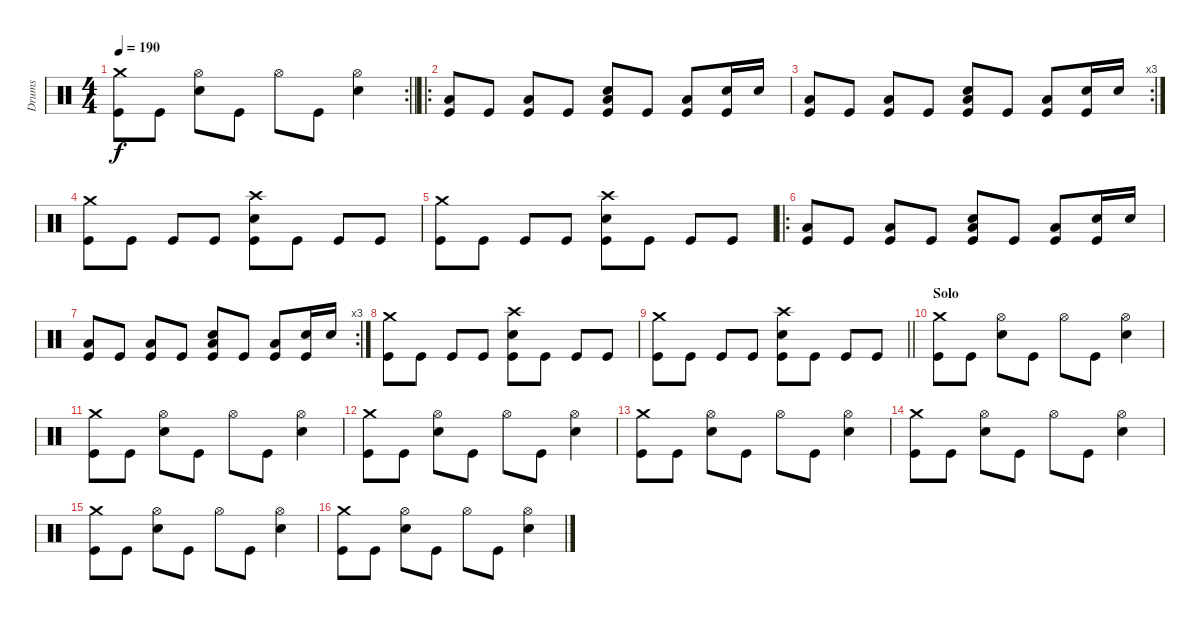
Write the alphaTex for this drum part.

\track ("Drums" "Drums") {instrument percussion}
\staff {score}
\articulation defaults
\rc 2
\ts (4 4)
\tempo 190
\clef neutral
\barLineRight lightlight
\ks c
("Crash medium (hit)" "Kick (hit)").8{dy f} "Kick (hit)".8 ("Hi-Hat (open)" "Snare (hit) 2").8 "Kick (hit)".8 "Hi-Hat (open)".8 "Kick (hit)".8 ("Hi-Hat (open)" "Snare (hit) 2").4 |
\ro
("Low Floor Tom (hit)" "Kick (hit)").8 "Kick (hit)".8 ("Low Floor Tom (hit)" "Kick (hit)").8 "Kick (hit)".8 ("Snare (hit) 2" "Low Floor Tom (hit)" "Kick (hit)").8 "Kick (hit)".8 ("Low Floor Tom (hit)" "Kick (hit)").8 ("Snare (hit) 2" "Kick (hit)").16 "Snare (hit) 2".16 |
\rc 3
("Low Floor Tom (hit)" "Kick (hit)").8 "Kick (hit)".8 ("Low Floor Tom (hit)" "Kick (hit)").8 "Kick (hit)".8 ("Snare (hit) 2" "Low Floor Tom (hit)" "Kick (hit)").8 "Kick (hit)".8 ("Low Floor Tom (hit)" "Kick (hit)").8 ("Snare (hit) 2" "Kick (hit)").16 "Snare (hit) 2".16 |
("Crash medium (hit)" "Kick (hit)").8 "Kick (hit)".8 "Kick (hit)".8 "Kick (hit)".8 ("Crash high (hit)" "Snare (hit) 2" "Kick (hit)").8 "Kick (hit)".8 "Kick (hit)".8 "Kick (hit)".8 |
("Crash medium (hit)" "Kick (hit)").8 "Kick (hit)".8 "Kick (hit)".8 "Kick (hit)".8 ("Crash high (hit)" "Snare (hit) 2" "Kick (hit)").8 "Kick (hit)".8 "Kick (hit)".8 "Kick (hit)".8 |
\ro
("Low Floor Tom (hit)" "Kick (hit)").8 "Kick (hit)".8 ("Low Floor Tom (hit)" "Kick (hit)").8 "Kick (hit)".8 ("Snare (hit) 2" "Low Floor Tom (hit)" "Kick (hit)").8 "Kick (hit)".8 ("Low Floor Tom (hit)" "Kick (hit)").8 ("Snare (hit) 2" "Kick (hit)").16 "Snare (hit) 2".16 |
\rc 3
("Low Floor Tom (hit)" "Kick (hit)").8 "Kick (hit)".8 ("Low Floor Tom (hit)" "Kick (hit)").8 "Kick (hit)".8 ("Snare (hit) 2" "Low Floor Tom (hit)" "Kick (hit)").8 "Kick (hit)".8 ("Low Floor Tom (hit)" "Kick (hit)").8 ("Snare (hit) 2" "Kick (hit)").16 "Snare (hit) 2".16 |
("Crash medium (hit)" "Kick (hit)").8 "Kick (hit)".8 "Kick (hit)".8 "Kick (hit)".8 ("Crash high (hit)" "Snare (hit) 2" "Kick (hit)").8 "Kick (hit)".8 "Kick (hit)".8 "Kick (hit)".8 |
\barLineRight lightlight
("Crash medium (hit)" "Kick (hit)").8 "Kick (hit)".8 "Kick (hit)".8 "Kick (hit)".8 ("Crash high (hit)" "Snare (hit) 2" "Kick (hit)").8 "Kick (hit)".8 "Kick (hit)".8 "Kick (hit)".8 |
\section ("" "Solo")
("Crash medium (hit)" "Kick (hit)").8 "Kick (hit)".8 ("Hi-Hat (open)" "Snare (hit) 2").8 "Kick (hit)".8 "Hi-Hat (open)".8 "Kick (hit)".8 ("Hi-Hat (open)" "Snare (hit) 2").4 |
("Crash medium (hit)" "Kick (hit)").8 "Kick (hit)".8 ("Hi-Hat (open)" "Snare (hit) 2").8 "Kick (hit)".8 "Hi-Hat (open)".8 "Kick (hit)".8 ("Hi-Hat (open)" "Snare (hit) 2").4 |
("Crash medium (hit)" "Kick (hit)").8 "Kick (hit)".8 ("Hi-Hat (open)" "Snare (hit) 2").8 "Kick (hit)".8 "Hi-Hat (open)".8 "Kick (hit)".8 ("Hi-Hat (open)" "Snare (hit) 2").4 |
("Crash medium (hit)" "Kick (hit)").8 "Kick (hit)".8 ("Hi-Hat (open)" "Snare (hit) 2").8 "Kick (hit)".8 "Hi-Hat (open)".8 "Kick (hit)".8 ("Hi-Hat (open)" "Snare (hit) 2").4 |
("Crash medium (hit)" "Kick (hit)").8 "Kick (hit)".8 ("Hi-Hat (open)" "Snare (hit) 2").8 "Kick (hit)".8 "Hi-Hat (open)".8 "Kick (hit)".8 ("Hi-Hat (open)" "Snare (hit) 2").4 |
("Crash medium (hit)" "Kick (hit)").8 "Kick (hit)".8 ("Hi-Hat (open)" "Snare (hit) 2").8 "Kick (hit)".8 "Hi-Hat (open)".8 "Kick (hit)".8 ("Hi-Hat (open)" "Snare (hit) 2").4 |
("Crash medium (hit)" "Kick (hit)").8 "Kick (hit)".8 ("Hi-Hat (open)" "Snare (hit) 2").8 "Kick (hit)".8 "Hi-Hat (open)".8 "Kick (hit)".8 ("Hi-Hat (open)" "Snare (hit) 2").4
